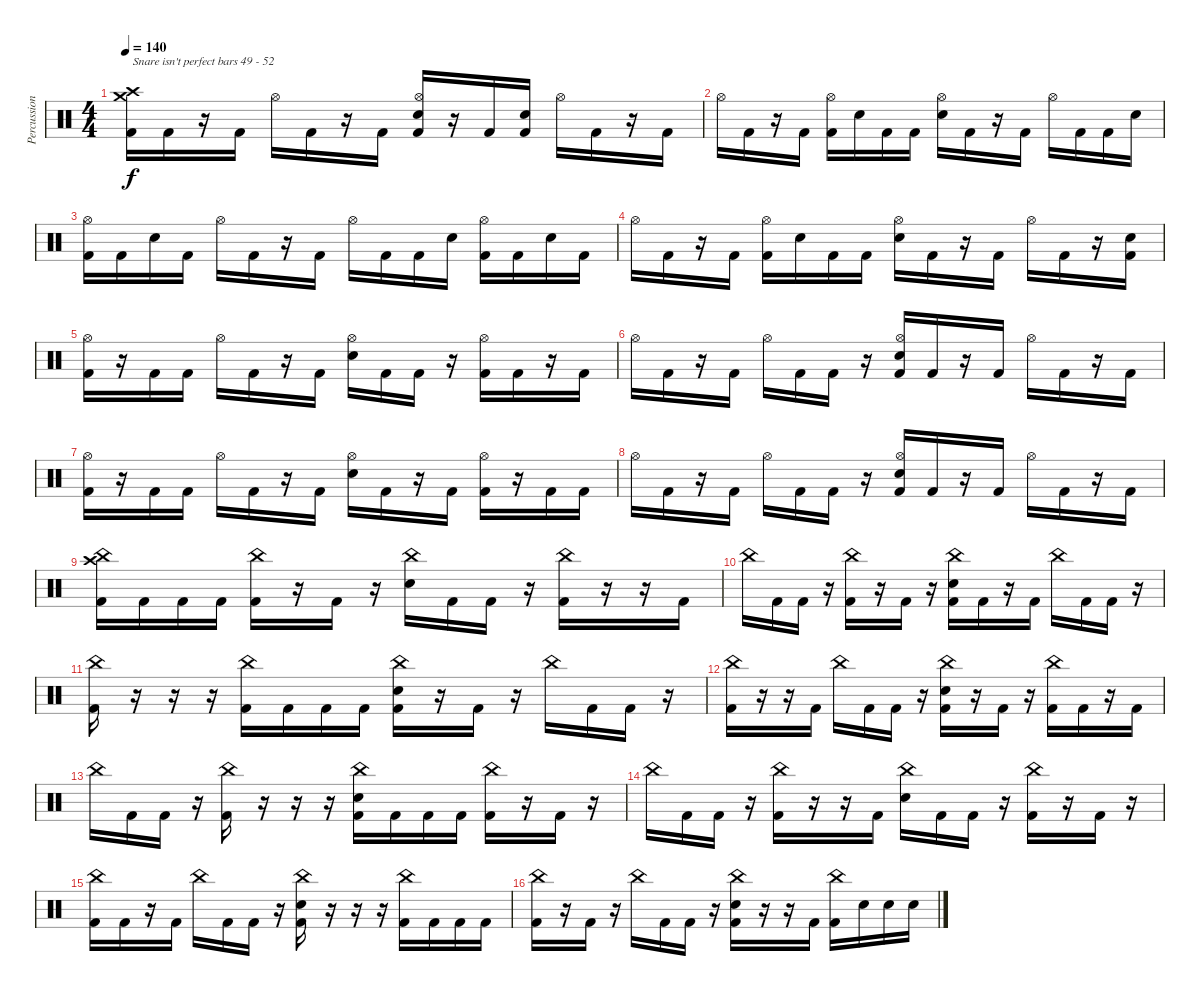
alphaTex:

\track ("Percussion" "Percussion") {instrument percussion}
\staff {score}
\articulation defaults
\ts (4 4)
\tempo 140
\clef neutral
\ks c
("Crash high (hit)" "Crash medium (hit)" "Kick (hit) 2").16{txt "Snare isn't perfect bars 49 - 52" dy f} "Kick (hit) 2".16 r.16 "Kick (hit) 2".16 "Hi-Hat (open)".16 "Kick (hit) 2".16 r.16 "Kick (hit) 2".16 ("Hi-Hat (open)" "Snare (hit) 2" "Kick (hit) 2").16 r.16 "Kick (hit) 2".16 ("Snare (hit) 2" "Kick (hit) 2").16 "Hi-Hat (open)".16 "Kick (hit) 2".16 r.16 "Kick (hit) 2".16 |
"Hi-Hat (open)".16 "Kick (hit) 2".16 r.16 "Kick (hit) 2".16 ("Hi-Hat (open)" "Kick (hit) 2").16 "Snare (hit) 2".16 "Kick (hit) 2".16 "Kick (hit) 2".16 ("Hi-Hat (open)" "Snare (hit) 2").16 "Kick (hit) 2".16 r.16 "Kick (hit) 2".16 "Hi-Hat (open)".16 "Kick (hit) 2".16 "Kick (hit) 2".16 "Snare (hit) 2".16 |
("Hi-Hat (open)" "Kick (hit) 2").16 "Kick (hit) 2".16 "Snare (hit) 2".16 "Kick (hit) 2".16 "Hi-Hat (open)".16 "Kick (hit) 2".16 r.16 "Kick (hit) 2".16 "Hi-Hat (open)".16 "Kick (hit) 2".16 "Kick (hit) 2".16 "Snare (hit) 2".16 ("Hi-Hat (open)" "Kick (hit) 2").16 "Kick (hit) 2".16 "Snare (hit) 2".16 "Kick (hit) 2".16 |
"Hi-Hat (open)".16 "Kick (hit) 2".16 r.16 "Kick (hit) 2".16 ("Hi-Hat (open)" "Kick (hit) 2").16 "Snare (hit) 2".16 "Kick (hit) 2".16 "Kick (hit) 2".16 ("Hi-Hat (open)" "Snare (hit) 2").16 "Kick (hit) 2".16 r.16 "Kick (hit) 2".16 "Hi-Hat (open)".16 "Kick (hit) 2".16 r.16 ("Snare (hit) 2" "Kick (hit) 2").16 |
("Hi-Hat (open)" "Kick (hit) 2").16 r.16 "Kick (hit) 2".16 "Kick (hit) 2".16 "Hi-Hat (open)".16 "Kick (hit) 2".16 r.16 "Kick (hit) 2".16 ("Hi-Hat (open)" "Snare (hit) 2").16 "Kick (hit) 2".16 "Kick (hit) 2".16 r.16 ("Hi-Hat (open)" "Kick (hit) 2").16 "Kick (hit) 2".16 r.16 "Kick (hit) 2".16 |
"Hi-Hat (open)".16 "Kick (hit) 2".16 r.16 "Kick (hit) 2".16 "Hi-Hat (open)".16 "Kick (hit) 2".16 "Kick (hit) 2".16 r.16 ("Hi-Hat (open)" "Snare (hit) 2" "Kick (hit) 2").16 "Kick (hit) 2".16 r.16 "Kick (hit) 2".16 "Hi-Hat (open)".16 "Kick (hit) 2".16 r.16 "Kick (hit) 2".16 |
("Hi-Hat (open)" "Kick (hit) 2").16 r.16 "Kick (hit) 2".16 "Kick (hit) 2".16 "Hi-Hat (open)".16 "Kick (hit) 2".16 r.16 "Kick (hit) 2".16 ("Hi-Hat (open)" "Snare (hit) 2").16 "Kick (hit) 2".16 r.16 "Kick (hit) 2".16 ("Hi-Hat (open)" "Kick (hit) 2").16 r.16 "Kick (hit) 2".16 "Kick (hit) 2".16 |
"Hi-Hat (open)".16 "Kick (hit) 2".16 r.16 "Kick (hit) 2".16 "Hi-Hat (open)".16 "Kick (hit) 2".16 "Kick (hit) 2".16 r.16 ("Hi-Hat (open)" "Snare (hit) 2" "Kick (hit) 2").16 "Kick (hit) 2".16 r.16 "Kick (hit) 2".16 "Hi-Hat (open)".16 "Kick (hit) 2".16 r.16 "Kick (hit) 2".16 |
("China (hit)" "Crash high (hit)" "Kick (hit) 2").16 "Kick (hit) 2".16 "Kick (hit) 2".16 "Kick (hit) 2".16 ("China (hit)" "Kick (hit) 2").16 r.16 "Kick (hit) 2".16 r.16 ("China (hit)" "Snare (hit) 2").16 "Kick (hit) 2".16 "Kick (hit) 2".16 r.16 ("China (hit)" "Kick (hit) 2").16 r.16 r.16 "Kick (hit) 2".16 |
"China (hit)".16 "Kick (hit) 2".16 "Kick (hit) 2".16 r.16 ("China (hit)" "Kick (hit) 2").16 r.16 "Kick (hit) 2".16 r.16 ("China (hit)" "Snare (hit) 2" "Kick (hit) 2").16 "Kick (hit) 2".16 r.16 "Kick (hit) 2".16 "China (hit)".16 "Kick (hit) 2".16 "Kick (hit) 2".16 r.16 |
("China (hit)" "Kick (hit) 2").16 r.16 r.16 r.16 ("China (hit)" "Kick (hit) 2").16 "Kick (hit) 2".16 "Kick (hit) 2".16 "Kick (hit) 2".16 ("China (hit)" "Snare (hit) 2" "Kick (hit) 2").16 r.16 "Kick (hit) 2".16 r.16 "China (hit)".16 "Kick (hit) 2".16 "Kick (hit) 2".16 r.16 |
("China (hit)" "Kick (hit) 2").16 r.16 r.16 "Kick (hit) 2".16 "China (hit)".16 "Kick (hit) 2".16 "Kick (hit) 2".16 r.16 ("China (hit)" "Snare (hit) 2" "Kick (hit) 2").16 r.16 "Kick (hit) 2".16 r.16 ("China (hit)" "Kick (hit) 2").16 "Kick (hit) 2".16 r.16 "Kick (hit) 2".16 |
"China (hit)".16 "Kick (hit) 2".16 "Kick (hit) 2".16 r.16 ("China (hit)" "Kick (hit) 2").16 r.16 r.16 r.16 ("China (hit)" "Snare (hit) 2" "Kick (hit) 2").16 "Kick (hit) 2".16 "Kick (hit) 2".16 "Kick (hit) 2".16 ("China (hit)" "Kick (hit) 2").16 r.16 "Kick (hit) 2".16 r.16 |
"China (hit)".16 "Kick (hit) 2".16 "Kick (hit) 2".16 r.16 ("China (hit)" "Kick (hit) 2").16 r.16 r.16 "Kick (hit) 2".16 ("China (hit)" "Snare (hit) 2").16 "Kick (hit) 2".16 "Kick (hit) 2".16 r.16 ("China (hit)" "Kick (hit) 2").16 r.16 "Kick (hit) 2".16 r.16 |
("China (hit)" "Kick (hit) 2").16 "Kick (hit) 2".16 r.16 "Kick (hit) 2".16 "China (hit)".16 "Kick (hit) 2".16 "Kick (hit) 2".16 r.16 ("China (hit)" "Snare (hit) 2" "Kick (hit) 2").16 r.16 r.16 r.16 ("China (hit)" "Kick (hit) 2").16 "Kick (hit) 2".16 "Kick (hit) 2".16 "Kick (hit) 2".16 |
("China (hit)" "Kick (hit) 2").16 r.16 "Kick (hit) 2".16 r.16 "China (hit)".16 "Kick (hit) 2".16 "Kick (hit) 2".16 r.16 ("China (hit)" "Snare (hit) 2" "Kick (hit) 2").16 r.16 r.16 "Kick (hit) 2".16 ("China (hit)" "Kick (hit) 2").16 "Snare (hit) 2".16 "Snare (hit) 2".16 "Snare (hit) 2".16
